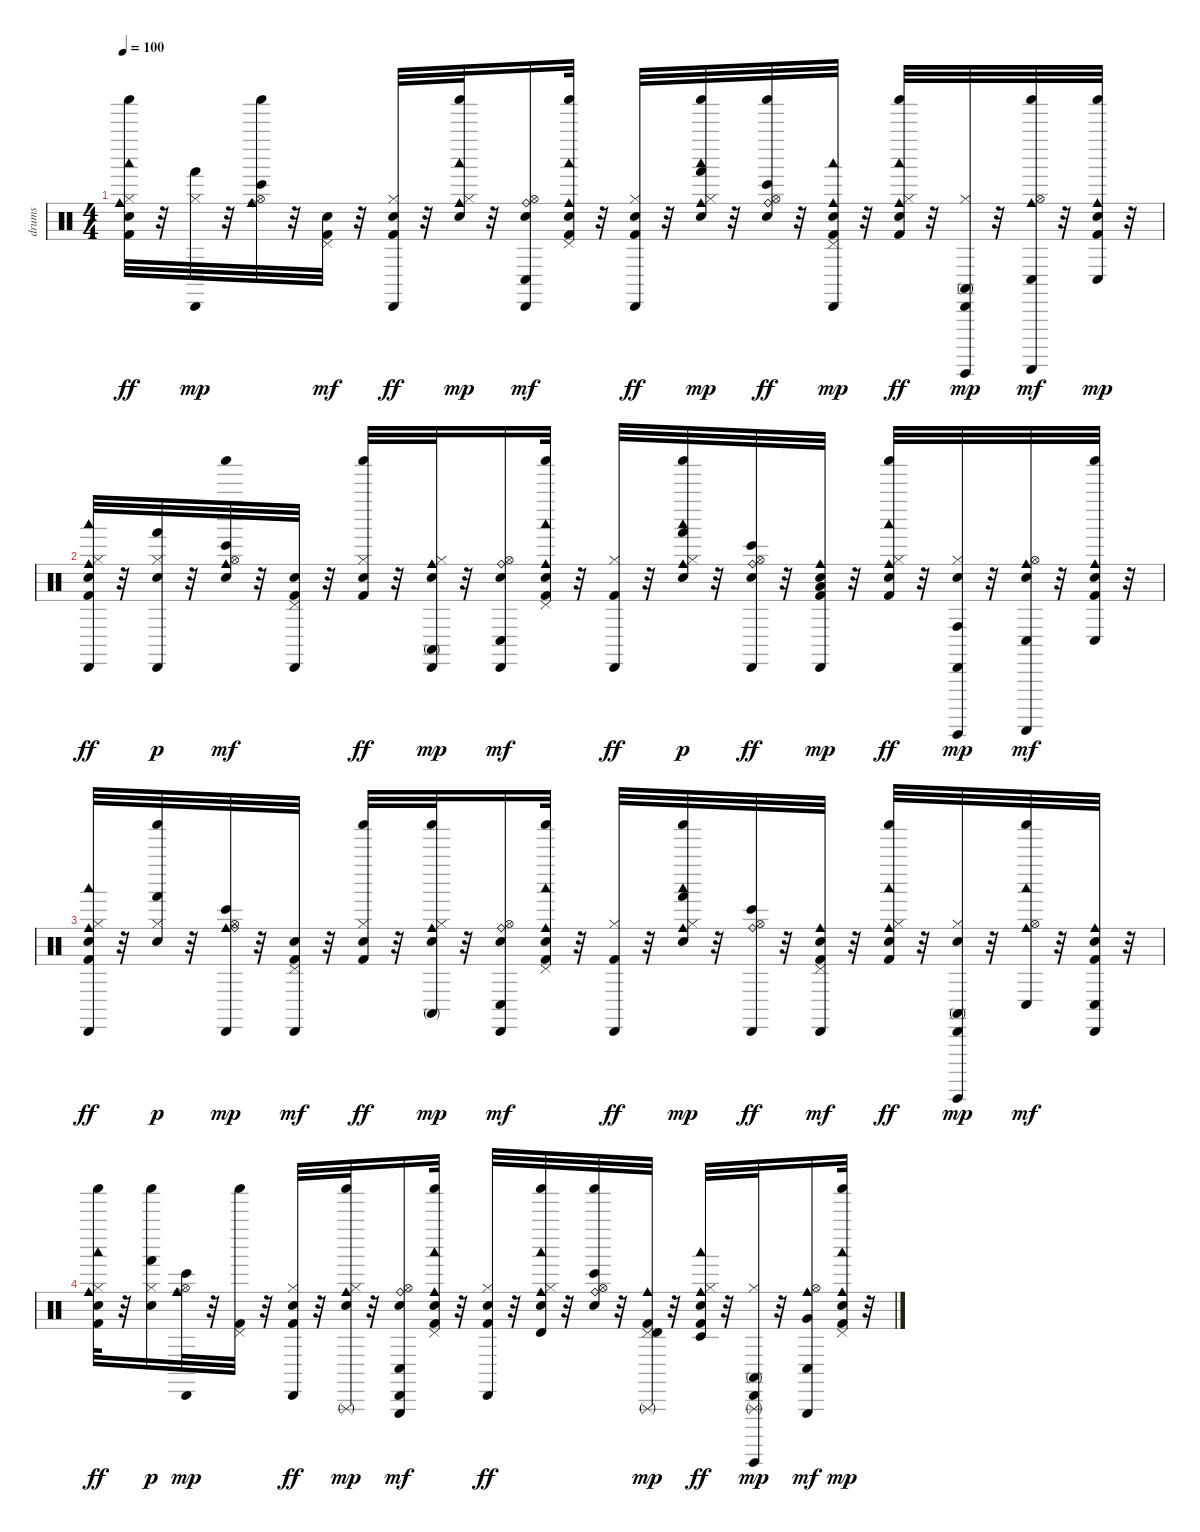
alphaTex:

\track ("drums" "drums") {instrument percussion}
\staff {score}
\articulation defaults
\ts (4 4)
\tempo 100
\clef neutral
\ks c
("Snare (hit) 2" "Hi-Hat (closed)" "Woodblock low (hit)" "Shaker (hit)" "Cowbell medium (hit)" "Kick (hit) 2").32{dy ff} r.32 ("Hi-Hat (closed)" "Cabasa (hit)" "Hand (hit)").32{dy mp} r.32 ("Hi-Hat (open)" "Shaker (hit)" "Cowbell medium (hit)" "Ride (bell)" "Bongo High (hit)").32 r.32 ("Snare (hit) 2" "Pedal Hi-Hat (hit)" "Kick (hit) 2").32{dy mf} r.32 ("Snare (hit) 2" "Hi-Hat (closed)" "Cabasa (hit)" "Kick (hit) 2").32{dy ff} r.32 ("Snare (hit) 2" "Hi-Hat (closed)" "Woodblock low (hit)" "Shaker (hit)" "Cowbell medium (hit)").32{dy mp} r.32 ("Snare (hit) 2" "Hi-Hat (open)" "Cabasa (hit)" "Ride (bell)" "Conga low (hit)").16{dy mf} ("Snare (hit) 2" "Pedal Hi-Hat (hit)" "Woodblock low (hit)" "Shaker (hit)" "Cowbell medium (hit)" "Kick (hit) 2").32 r.32 ("Snare (hit) 2" "Hi-Hat (closed)" "Cabasa (hit)" "Kick (hit) 2").32{dy ff} r.32 ("Snare (hit) 2" "Hi-Hat (closed)" "Woodblock low (hit)" "Shaker (hit)" "Cowbell medium (hit)" "Hand (hit)").32{dy mp} r.32 ("Snare (hit) 2" "Hi-Hat (open)" "Shaker (hit)" "Ride (bell)" "Bongo High (hit)").32{dy ff} r.32 ("Snare (hit) 2" "Pedal Hi-Hat (hit)" "Woodblock low (hit)" "Cabasa (hit)" "Cowbell medium (hit)" "Kick (hit) 2").32{dy mp} r.32 ("Snare (hit) 2" "Hi-Hat (closed)" "Woodblock low (hit)" "Shaker (hit)" "Cowbell medium (hit)" "Kick (hit) 2").32{dy ff} r.32 ("Hi-Hat (closed)" "Cabasa (hit)" "Guiro (hit)" "Conga high (mute)").32{dy mp} r.32 ("Hi-Hat (open)" "Shaker (hit)" "Guiro (scrap-return)" "Cowbell medium (hit)" "Conga low (hit)").32{dy mf} r.32 ("Snare (hit) 2" "Shaker (hit)" "Cowbell medium (hit)" "Kick (hit) 2" "Conga low (hit)").32{dy mp} r.32 |
("Snare (hit) 2" "Hi-Hat (closed)" "Woodblock low (hit)" "Cabasa (hit)" "Cowbell medium (hit)" "Kick (hit) 2").32{dy ff} r.32 ("Snare (hit) 2" "Hi-Hat (closed)" "Cabasa (hit)" "Hand (hit)").32{dy p} r.32 ("Snare (hit) 2" "Hi-Hat (open)" "Shaker (hit)" "Cowbell medium (hit)" "Bongo High (hit)").32{dy mf} r.32 ("Snare (hit) 2" "Pedal Hi-Hat (hit)" "Cabasa (hit)" "Kick (hit) 2").32 r.32 ("Snare (hit) 2" "Hi-Hat (closed)" "Shaker (hit)" "Kick (hit) 2").32{dy ff} r.32 ("Snare (hit) 2" "Hi-Hat (closed)" "Cabasa (hit)" "Cowbell medium (hit)" "Conga high (mute)").32{dy mp} r.32 ("Snare (hit) 2" "Hi-Hat (open)" "Cabasa (hit)" "Ride (bell)" "Conga low (hit)").16{dy mf} ("Snare (hit) 2" "Pedal Hi-Hat (hit)" "Woodblock low (hit)" "Shaker (hit)" "Cowbell medium (hit)" "Kick (hit) 2").32 r.32 ("Hi-Hat (closed)" "Cabasa (hit)" "Kick (hit) 2").32{dy ff} r.32 ("Snare (hit) 2" "Hi-Hat (closed)" "Woodblock low (hit)" "Shaker (hit)" "Cowbell medium (hit)" "Hand (hit)").32{dy p} r.32 ("Snare (hit) 2" "Hi-Hat (open)" "Cabasa (hit)" "Ride (bell)" "Bongo High (hit)").32{dy ff} r.32 ("Snare (hit) 2" "Cabasa (hit)" "Cowbell medium (hit)" "Kick (hit) 2" "Low Tom (hit)").32{dy mp} r.32 ("Snare (hit) 2" "Hi-Hat (closed)" "Woodblock low (hit)" "Shaker (hit)" "Cowbell medium (hit)" "Kick (hit) 2").32{dy ff} r.32 ("Snare (hit) 2" "Hi-Hat (closed)" "Cabasa (hit)" "Guiro (hit)" "Conga high (hit)").32{dy mp} r.32 ("Snare (hit) 2" "Hi-Hat (open)" "Guiro (scrap-return)" "Cowbell medium (hit)" "Conga low (hit)").32{dy mf} r.32 ("Snare (hit) 2" "Shaker (hit)" "Cowbell medium (hit)" "Kick (hit) 2" "Conga low (hit)").32 r.32 |
("Snare (hit) 2" "Hi-Hat (closed)" "Woodblock low (hit)" "Cabasa (hit)" "Cowbell medium (hit)" "Kick (hit) 2").32{dy ff} r.32 ("Snare (hit) 2" "Hi-Hat (closed)" "Shaker (hit)" "Hand (hit)").32{dy p} r.32 ("Hi-Hat (open)" "Cabasa (hit)" "Cowbell medium (hit)" "Ride (bell)" "Bongo High (hit)").32{dy mp} r.32 ("Snare (hit) 2" "Pedal Hi-Hat (hit)" "Cabasa (hit)" "Kick (hit) 2").32{dy mf} r.32 ("Snare (hit) 2" "Hi-Hat (closed)" "Shaker (hit)" "Kick (hit) 2").32{dy ff} r.32 ("Snare (hit) 2" "Hi-Hat (closed)" "Shaker (hit)" "Cowbell medium (hit)" "Conga high (mute)").32{dy mp} r.32 ("Snare (hit) 2" "Hi-Hat (open)" "Cabasa (hit)" "Ride (bell)" "Conga low (hit)").16{dy mf} ("Snare (hit) 2" "Pedal Hi-Hat (hit)" "Woodblock low (hit)" "Shaker (hit)" "Cowbell medium (hit)" "Kick (hit) 2").32 r.32 ("Hi-Hat (closed)" "Cabasa (hit)" "Kick (hit) 2").32{dy ff} r.32 ("Snare (hit) 2" "Hi-Hat (closed)" "Woodblock low (hit)" "Shaker (hit)" "Cowbell medium (hit)" "Hand (hit)").32{dy mp} r.32 ("Hi-Hat (open)" "Cabasa (hit)" "Ride (bell)" "Bongo High (hit)").32{dy ff} r.32 ("Snare (hit) 2" "Pedal Hi-Hat (hit)" "Cabasa (hit)" "Cowbell medium (hit)" "Kick (hit) 2").32{dy mf} r.32 ("Snare (hit) 2" "Hi-Hat (closed)" "Woodblock low (hit)" "Shaker (hit)" "Cowbell medium (hit)" "Kick (hit) 2").32{dy ff} r.32 ("Snare (hit) 2" "Hi-Hat (closed)" "Cabasa (hit)" "Guiro (hit)" "Conga high (mute)").32{dy mp} r.32 ("Hi-Hat (open)" "Woodblock low (hit)" "Shaker (hit)" "Cowbell medium (hit)" "Conga low (hit)").32{dy mf} r.32 ("Snare (hit) 2" "Cabasa (hit)" "Cowbell medium (hit)" "Kick (hit) 2" "Conga low (hit)").32 r.32 |
("Snare (hit) 2" "Hi-Hat (closed)" "Woodblock low (hit)" "Shaker (hit)" "Cowbell medium (hit)" "Kick (hit) 2").32{dy ff} r.32 ("Snare (hit) 2" "Hi-Hat (closed)" "Shaker (hit)" "Hand (hit)").16{dy p} ("Hi-Hat (open)" "Cabasa (hit)" "Cowbell medium (hit)" "Ride (bell)" "Bongo High (hit)").32{dy mp} r.32 ("Pedal Hi-Hat (hit)" "Shaker (hit)" "Kick (hit) 2").32 r.32 ("Snare (hit) 2" "Hi-Hat (closed)" "Cabasa (hit)" "Kick (hit) 2").32{dy ff} r.32 ("Snare (hit) 2" "Hi-Hat (closed)" "Shaker (hit)" "Triangle (rnute)" "Cowbell medium (hit)").32{dy mp} r.32 ("Snare (hit) 2" "Hi-Hat (open)" "Cabasa (hit)" "Triangle (hit)" "Ride (bell)" "Conga low (hit)").16{dy mf} ("Snare (hit) 2" "Pedal Hi-Hat (hit)" "Woodblock low (hit)" "Shaker (hit)" "Cowbell medium (hit)" "Kick (hit) 2").32 r.32 ("Snare (hit) 2" "Hi-Hat (closed)" "Cabasa (hit)" "Kick (hit) 2").32{dy ff} r.32 ("Snare (hit) 2" "Hi-Hat (closed)" "Woodblock low (hit)" "Shaker (hit)" "Timbale high (hit)" "Cowbell medium (hit)").32 r.32 ("Snare (hit) 2" "Hi-Hat (open)" "Shaker (hit)" "Ride (bell)" "Bongo High (hit)").32 r.32 ("Pedal Hi-Hat (hit)" "Timbale high (hit)" "Triangle (rnute)" "Cowbell medium (hit)" "Kick (hit) 2").32{dy mp} r.32 ("Snare (hit) 2" "Hi-Hat (closed)" "Woodblock low (hit)" "Timbale low (hit)" "Cowbell medium (hit)" "Kick (hit) 2").32{dy ff} r.32 ("Hi-Hat (closed)" "Cabasa (hit)" "Triangle (rnute)" "Guiro (hit)" "Conga high (mute)").32{dy mp} r.32 ("Very Low Tom (hit)" "Hi-Hat (open)" "Triangle (hit)" "Cowbell medium (hit)" "Conga low (hit)").16{dy mf} ("Snare (hit) 2" "Pedal Hi-Hat (hit)" "Woodblock low (hit)" "Shaker (hit)" "Cowbell medium (hit)" "Kick (hit) 2").32{dy mp} r.32
